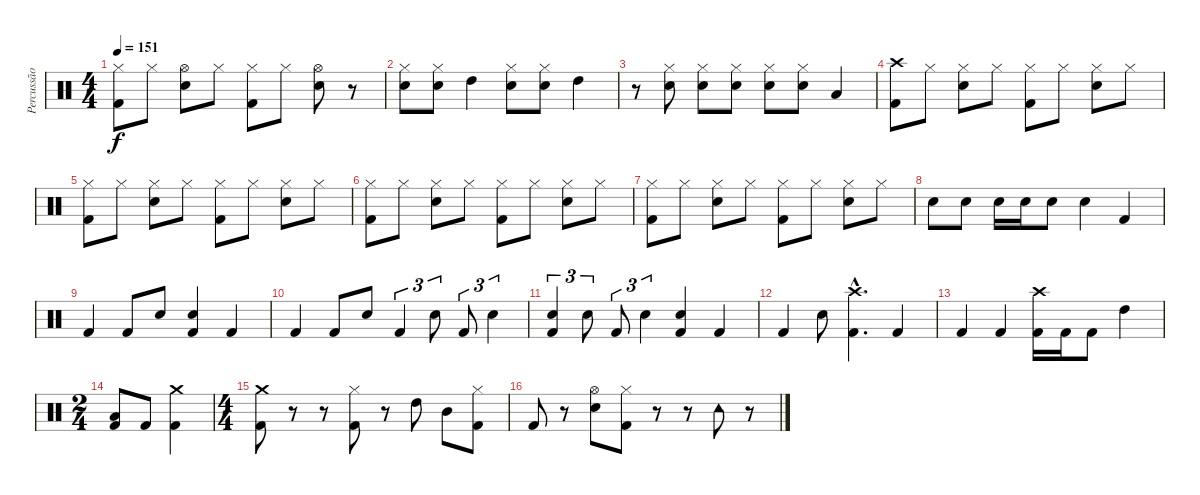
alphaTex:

\track ("Percussão" "Percussão") {instrument percussion}
\staff {score}
\articulation defaults
\ts (4 4)
\tempo 151
\clef neutral
\ks c
("Kick (hit) 2" "Hi-Hat (closed)").8{dy f} "Hi-Hat (closed)".8 ("Snare (hit) 2" "Hi-Hat (open)").8 "Hi-Hat (closed)".8 ("Kick (hit) 2" "Hi-Hat (closed)").8 "Hi-Hat (closed)".8 ("Snare (hit) 2" "Hi-Hat (open)").8 r.8 |
("Snare (hit) 2" "Hi-Hat (closed)").8 ("Snare (hit) 2" "Hi-Hat (closed)").8 "High Tom (hit)".4 ("Snare (hit) 2" "Hi-Hat (closed)").8 ("Snare (hit) 2" "Hi-Hat (closed)").8 "High Tom (hit)".4 |
r.8 ("Snare (hit) 2" "Hi-Hat (closed)").8 ("Snare (hit) 2" "Hi-Hat (closed)").8 ("Snare (hit) 2" "Hi-Hat (closed)").8 ("Snare (hit) 2" "Hi-Hat (closed)").8 ("Snare (hit) 2" "Hi-Hat (closed)").8 "Low Tom (hit)".4 |
("Kick (hit) 2" "Crash high (hit)").8 "Hi-Hat (closed)".8 ("Snare (hit) 2" "Hi-Hat (closed)").8 "Hi-Hat (closed)".8 ("Kick (hit) 2" "Hi-Hat (closed)").8 "Hi-Hat (closed)".8 ("Snare (hit) 2" "Hi-Hat (closed)").8 "Hi-Hat (closed)".8 |
("Kick (hit) 2" "Hi-Hat (closed)").8 "Hi-Hat (closed)".8 ("Snare (hit) 2" "Hi-Hat (closed)").8 "Hi-Hat (closed)".8 ("Kick (hit) 2" "Hi-Hat (closed)").8 "Hi-Hat (closed)".8 ("Snare (hit) 2" "Hi-Hat (closed)").8 "Hi-Hat (closed)".8 |
("Kick (hit) 2" "Hi-Hat (closed)").8 "Hi-Hat (closed)".8 ("Snare (hit) 2" "Hi-Hat (closed)").8 "Hi-Hat (closed)".8 ("Kick (hit) 2" "Hi-Hat (closed)").8 "Hi-Hat (closed)".8 ("Snare (hit) 2" "Hi-Hat (closed)").8 "Hi-Hat (closed)".8 |
("Kick (hit) 2" "Hi-Hat (closed)").8 "Hi-Hat (closed)".8 ("Snare (hit) 2" "Hi-Hat (closed)").8 "Hi-Hat (closed)".8 ("Kick (hit) 2" "Hi-Hat (closed)").8 "Hi-Hat (closed)".8 ("Snare (hit) 2" "Hi-Hat (closed)").8 "Hi-Hat (closed)".8 |
"Snare (hit) 2".8 "Snare (hit) 2".8 "Snare (hit) 2".16 "Snare (hit) 2".16 "Snare (hit) 2".8 "Snare (hit) 2".4 "Kick (hit) 2".4 |
"Kick (hit) 2".4 "Kick (hit) 2".8 "Snare (hit) 2".8 ("Kick (hit) 2" "Snare (hit) 2").4 "Kick (hit) 2".4 |
"Kick (hit) 2".4 "Kick (hit) 2".8 "Snare (hit) 2".8 "Kick (hit) 2".4{tu (3 2)} "Snare (hit) 2".8{tu (3 2)} "Kick (hit) 2".8{tu (3 2)} "Snare (hit) 2".4{tu (3 2)} |
("Kick (hit) 2" "Snare (hit) 2").4{tu (3 2)} "Snare (hit) 2".8{tu (3 2)} "Kick (hit) 2".8{tu (3 2)} "Snare (hit) 2".4{tu (3 2)} ("Kick (hit) 2" "Snare (hit) 2").4 "Kick (hit) 2".4 |
"Kick (hit) 2".4 "Snare (hit) 2".8 ("Kick (hit) 2"{hac} "Crash high (hit)"{hac}).4{d} "Kick (hit) 2".4 |
"Kick (hit) 2".4 "Kick (hit) 2".4 ("Kick (hit) 2" "Crash high (hit)").16 "Kick (hit) 2".16 "Kick (hit) 2".8 "High Tom (hit)".4 |
\ts (2 4)
("Kick (hit) 2" "Low Tom (hit)").8 "Kick (hit) 2".8 ("Kick (hit) 2" "Crash medium (hit)").4 |
\ts (4 4)
("Kick (hit) 2" "Crash medium (hit)").8 r.8 r.8 ("Kick (hit) 2" "Hi-Hat (closed)").8 r.8 "High Tom (hit)".8 "Mid Tom (hit)".8 ("Kick (hit) 2" "Hi-Hat (closed)").8 |
"Kick (hit) 2".8 r.8 ("Snare (hit) 2" "Hi-Hat (open)").8 ("Kick (hit) 2" "Hi-Hat (closed)").8 r.8 r.8 "Tambourine (hit)".8 r.8
